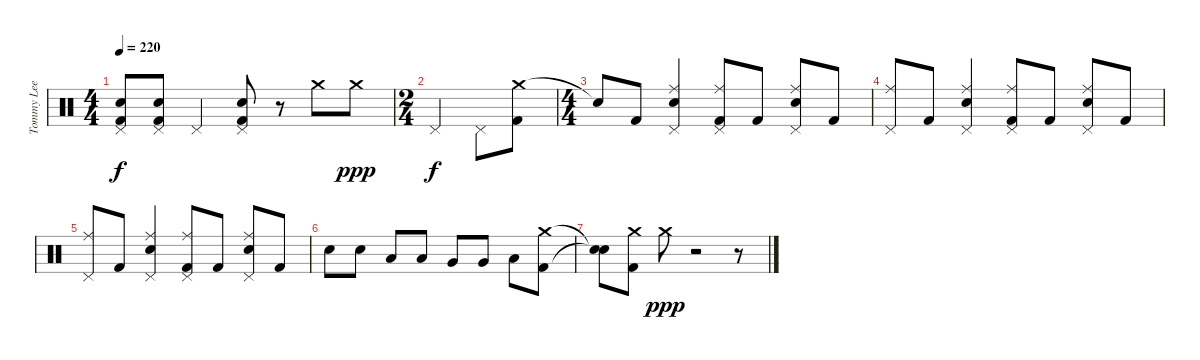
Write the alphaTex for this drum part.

\track ("Tommy Lee - Drums" "Tommy Lee ") {instrument percussion}
\staff {score}
\articulation defaults
\ts (4 4)
\tempo 220
\clef neutral
\ks c
("Pedal Hi-Hat (hit)" "Electric Snare (hit)" "Kick (hit) 2").8{dy f} ("Pedal Hi-Hat (hit)" "Electric Snare (hit)" "Kick (hit) 2").8 "Pedal Hi-Hat (hit)".4 ("Pedal Hi-Hat (hit)" "Electric Snare (hit)" "Kick (hit) 2").8 r.8 "Crash medium (hit)".8 "Crash medium (hit)".8{dy ppp} |
\ts (2 4)
"Pedal Hi-Hat (hit)".4{dy f} "Pedal Hi-Hat (hit)".8 ("Crash medium (hit)" "Kick (hit) 2").8 |
\ts (4 4)
"Snare (hit)"{t}.8 "Kick (hit) 2".8 ("Ride (middle)" "Pedal Hi-Hat (hit)" "Electric Snare (hit)").4 ("Ride (middle)" "Pedal Hi-Hat (hit)" "Kick (hit) 2").8 "Kick (hit) 2".8 ("Ride (middle)" "Pedal Hi-Hat (hit)" "Electric Snare (hit)").8 "Kick (hit) 2".8 |
("Ride (middle)" "Pedal Hi-Hat (hit)").8 "Kick (hit) 2".8 ("Ride (middle)" "Pedal Hi-Hat (hit)" "Electric Snare (hit)").4 ("Ride (middle)" "Pedal Hi-Hat (hit)" "Kick (hit) 2").8 "Kick (hit) 2".8 ("Ride (middle)" "Pedal Hi-Hat (hit)" "Electric Snare (hit)").8 "Kick (hit) 2".8 |
("Ride (middle)" "Pedal Hi-Hat (hit)").8 "Kick (hit) 2".8 ("Ride (middle)" "Pedal Hi-Hat (hit)" "Electric Snare (hit)").4 ("Ride (middle)" "Pedal Hi-Hat (hit)" "Kick (hit) 2").8 "Kick (hit) 2".8 ("Ride (middle)" "Pedal Hi-Hat (hit)" "Electric Snare (hit)").8 "Kick (hit) 2".8 |
"Electric Snare (hit)".8 "Electric Snare (hit)".8 "Low Tom (hit)".8 "Low Tom (hit)".8 "Very Low Tom (hit)".8 "Very Low Tom (hit)".8 "Low Floor Tom (hit)".8 ("Crash medium (hit)" "Kick (hit) 2").8 |
("Snare (hit)"{t} "Snare (hit)"{t}).8 ("Crash medium (hit)" "Kick (hit) 2").8 "Crash medium (hit)".8{dy ppp} r.2 r.8
